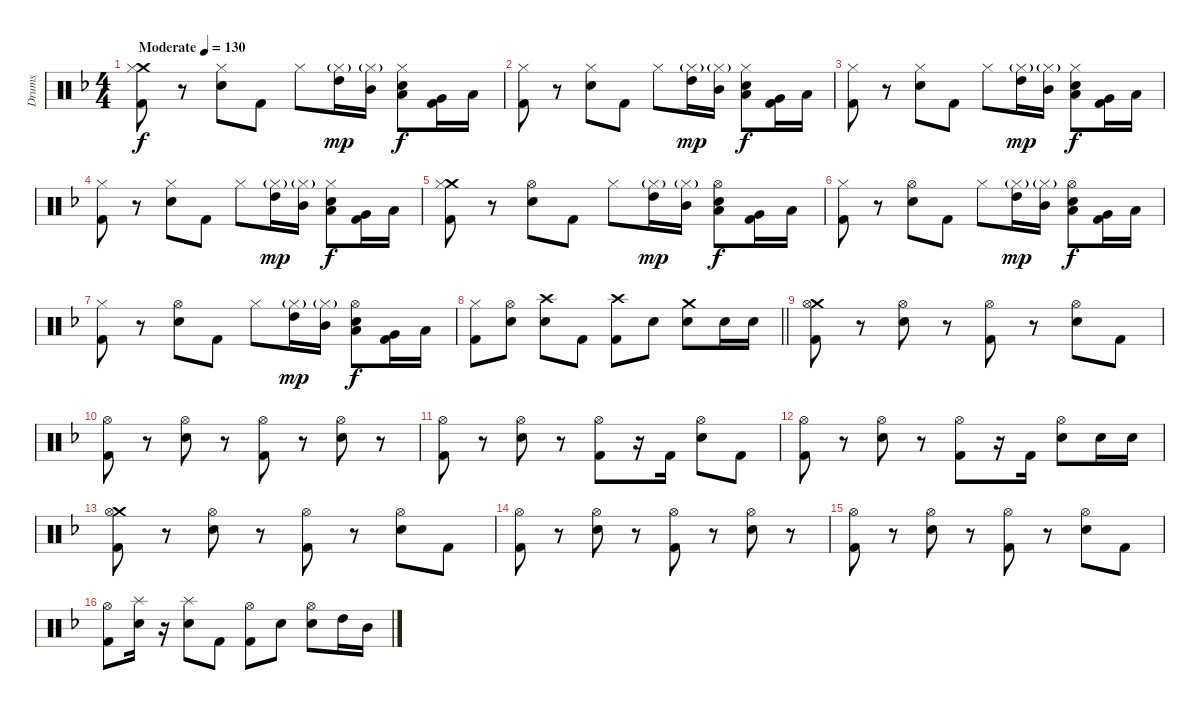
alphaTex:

\track ("Drums" "Drums") {instrument percussion}
\staff {score}
\articulation defaults
\ts (4 4)
\section ("" "")
\tempo (130 "Moderate")
\clef neutral
\ks dminor
("Crash medium (hit)" "Hi-Hat (closed)" "Kick (hit) 2").8{dy f} r.8 ("Hi-Hat (closed)" "Electric Snare (hit)").8 "Kick (hit) 2".8 "Hi-Hat (closed)".8 ("Hi-Hat (closed)"{g} "High Tom (hit)").16{dy mp} ("Hi-Hat (closed)"{g} "Mid Tom (hit)").16 ("Hi-Hat (closed)" "Low Tom (hit)" "Electric Snare (hit)").8{dy f} ("Very Low Tom (hit)" "Kick (hit) 2").16 "Low Floor Tom (hit)".16 |
("Hi-Hat (closed)" "Kick (hit) 2").8 r.8 ("Hi-Hat (closed)" "Electric Snare (hit)").8 "Kick (hit) 2".8 "Hi-Hat (closed)".8 ("Hi-Hat (closed)"{g} "High Tom (hit)").16{dy mp} ("Hi-Hat (closed)"{g} "Mid Tom (hit)").16 ("Hi-Hat (closed)" "Low Tom (hit)" "Electric Snare (hit)").8{dy f} ("Very Low Tom (hit)" "Kick (hit) 2").16 "Low Floor Tom (hit)".16 |
("Hi-Hat (closed)" "Kick (hit) 2").8 r.8 ("Hi-Hat (closed)" "Electric Snare (hit)").8 "Kick (hit) 2".8 "Hi-Hat (closed)".8 ("Hi-Hat (closed)"{g} "High Tom (hit)").16{dy mp} ("Hi-Hat (closed)"{g} "Mid Tom (hit)").16 ("Hi-Hat (closed)" "Low Tom (hit)" "Electric Snare (hit)").8{dy f} ("Very Low Tom (hit)" "Kick (hit) 2").16 "Low Floor Tom (hit)".16 |
("Hi-Hat (closed)" "Kick (hit) 2").8 r.8 ("Hi-Hat (closed)" "Electric Snare (hit)").8 "Kick (hit) 2".8 "Hi-Hat (closed)".8 ("Hi-Hat (closed)"{g} "High Tom (hit)").16{dy mp} ("Hi-Hat (closed)"{g} "Mid Tom (hit)").16 ("Hi-Hat (closed)" "Low Tom (hit)" "Electric Snare (hit)").8{dy f} ("Very Low Tom (hit)" "Kick (hit) 2").16 "Low Floor Tom (hit)".16 |
("Crash medium (hit)" "Hi-Hat (closed)" "Kick (hit) 2").8 r.8 ("Hi-Hat (open)" "Electric Snare (hit)").8 "Kick (hit) 2".8 "Hi-Hat (closed)".8 ("Hi-Hat (closed)"{g} "High Tom (hit)").16{dy mp} ("Hi-Hat (closed)"{g} "Mid Tom (hit)").16 ("Hi-Hat (open)" "Low Tom (hit)" "Electric Snare (hit)").8{dy f} ("Very Low Tom (hit)" "Kick (hit) 2").16 "Low Floor Tom (hit)".16 |
("Hi-Hat (closed)" "Kick (hit) 2").8 r.8 ("Hi-Hat (open)" "Electric Snare (hit)").8 "Kick (hit) 2".8 "Hi-Hat (closed)".8 ("Hi-Hat (closed)"{g} "High Tom (hit)").16{dy mp} ("Hi-Hat (closed)"{g} "Mid Tom (hit)").16 ("Hi-Hat (open)" "Low Tom (hit)" "Electric Snare (hit)").8{dy f} ("Very Low Tom (hit)" "Kick (hit) 2").16 "Low Floor Tom (hit)".16 |
("Hi-Hat (closed)" "Kick (hit) 2").8 r.8 ("Hi-Hat (open)" "Electric Snare (hit)").8 "Kick (hit) 2".8 "Hi-Hat (closed)".8 ("Hi-Hat (closed)"{g} "High Tom (hit)").16{dy mp} ("Hi-Hat (closed)"{g} "Mid Tom (hit)").16 ("Hi-Hat (open)" "Low Tom (hit)" "Electric Snare (hit)").8{dy f} ("Very Low Tom (hit)" "Kick (hit) 2").16 "Low Floor Tom (hit)".16 |
\barLineRight lightlight
("Hi-Hat (closed)" "Kick (hit) 2").8 ("Hi-Hat (open)" "Electric Snare (hit)").8 ("Crash high (hit)" "Electric Snare (hit)").8 "Kick (hit) 2".8 ("Crash high (hit)" "Kick (hit) 2").8 "Electric Snare (hit)".8 ("Crash medium (hit)" "Electric Snare (hit)").8 "Electric Snare (hit)".16 "Electric Snare (hit)".16 |
\section ("" "")
("Crash medium (hit)" "Hi-Hat (open)" "Kick (hit) 2").8 r.8 ("Hi-Hat (open)" "Electric Snare (hit)").8 r.8 ("Hi-Hat (open)" "Kick (hit) 2").8 r.8 ("Hi-Hat (open)" "Electric Snare (hit)").8 "Kick (hit) 2".8 |
("Hi-Hat (open)" "Kick (hit) 2").8 r.8 ("Hi-Hat (open)" "Electric Snare (hit)").8 r.8 ("Hi-Hat (open)" "Kick (hit) 2").8 r.8 ("Hi-Hat (open)" "Electric Snare (hit)").8 r.8 |
("Hi-Hat (open)" "Kick (hit) 2").8 r.8 ("Hi-Hat (open)" "Electric Snare (hit)").8 r.8 ("Hi-Hat (open)" "Kick (hit) 2").8 r.16 "Kick (hit) 2".16 ("Hi-Hat (open)" "Electric Snare (hit)").8 "Kick (hit) 2".8 |
("Hi-Hat (open)" "Kick (hit) 2").8 r.8 ("Hi-Hat (open)" "Electric Snare (hit)").8 r.8 ("Hi-Hat (open)" "Kick (hit) 2").8 r.16 "Kick (hit) 2".16 ("Hi-Hat (open)" "Electric Snare (hit)").8 "Electric Snare (hit)".16 "Electric Snare (hit)".16 |
("Crash medium (hit)" "Hi-Hat (open)" "Kick (hit) 2").8 r.8 ("Hi-Hat (open)" "Electric Snare (hit)").8 r.8 ("Hi-Hat (open)" "Kick (hit) 2").8 r.8 ("Hi-Hat (open)" "Electric Snare (hit)").8 "Kick (hit) 2".8 |
("Hi-Hat (open)" "Kick (hit) 2").8 r.8 ("Hi-Hat (open)" "Electric Snare (hit)").8 r.8 ("Hi-Hat (open)" "Kick (hit) 2").8 r.8 ("Hi-Hat (open)" "Electric Snare (hit)").8 r.8 |
("Hi-Hat (open)" "Kick (hit) 2").8 r.8 ("Hi-Hat (open)" "Electric Snare (hit)").8 r.8 ("Hi-Hat (open)" "Kick (hit) 2").8 r.8 ("Hi-Hat (open)" "Electric Snare (hit)").8 "Kick (hit) 2".8 |
("Hi-Hat (open)" "Kick (hit) 2").8 ("Splash (hit)" "Electric Snare (hit)").16 r.16 ("Splash (hit)" "Electric Snare (hit)").8 "Kick (hit) 2".8 ("Hi-Hat (open)" "Kick (hit) 2").8 "Electric Snare (hit)".8 ("Hi-Hat (open)" "Electric Snare (hit)").8 "High Tom (hit)".16 "Mid Tom (hit)".16
